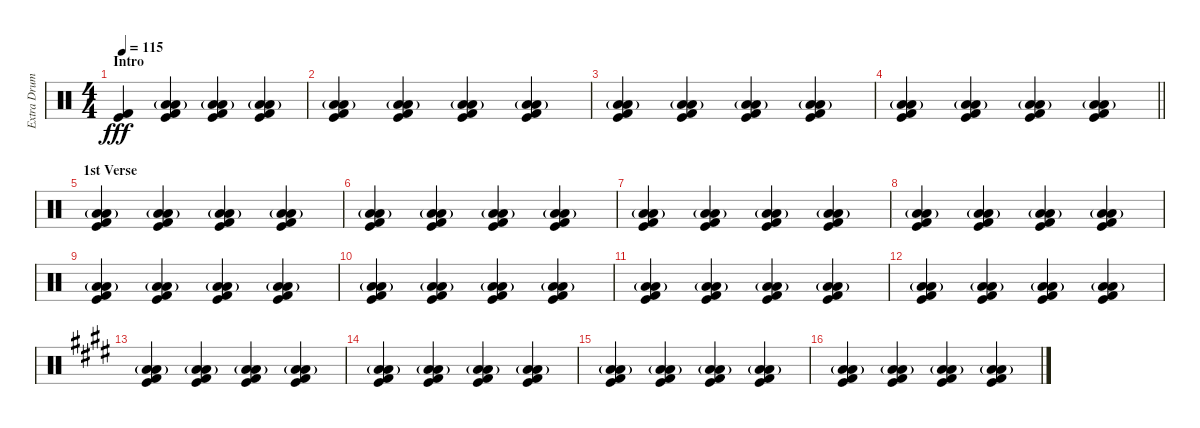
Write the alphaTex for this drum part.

\track ("Extra Drum" "Extra Drum") {instrument percussion}
\staff {score}
\articulation defaults
\ts (4 4)
\section ("" "Intro")
\tempo 115
\clef neutral
\ks c
("Kick (hit)" "Kick (hit) 2").4{dy fff} ("Low Tom (hit)"{g} "Low Floor Tom (hit)"{g} "Kick (hit)" "Kick (hit) 2").4 ("Low Tom (hit)"{g} "Low Floor Tom (hit)"{g} "Kick (hit)" "Kick (hit) 2").4 ("Low Tom (hit)"{g} "Low Floor Tom (hit)"{g} "Kick (hit)" "Kick (hit) 2").4 |
("Low Tom (hit)"{g} "Low Floor Tom (hit)"{g} "Kick (hit)" "Kick (hit) 2").4 ("Low Tom (hit)"{g} "Low Floor Tom (hit)"{g} "Kick (hit)" "Kick (hit) 2").4 ("Low Tom (hit)"{g} "Low Floor Tom (hit)"{g} "Kick (hit)" "Kick (hit) 2").4 ("Low Tom (hit)"{g} "Low Floor Tom (hit)"{g} "Kick (hit)" "Kick (hit) 2").4 |
("Low Tom (hit)"{g} "Low Floor Tom (hit)"{g} "Kick (hit)" "Kick (hit) 2").4 ("Low Tom (hit)"{g} "Low Floor Tom (hit)"{g} "Kick (hit)" "Kick (hit) 2").4 ("Low Tom (hit)"{g} "Low Floor Tom (hit)"{g} "Kick (hit)" "Kick (hit) 2").4 ("Low Tom (hit)"{g} "Low Floor Tom (hit)"{g} "Kick (hit)" "Kick (hit) 2").4 |
\barLineRight lightlight
("Low Tom (hit)"{g} "Low Floor Tom (hit)"{g} "Kick (hit)" "Kick (hit) 2").4 ("Low Tom (hit)"{g} "Low Floor Tom (hit)"{g} "Kick (hit)" "Kick (hit) 2").4 ("Low Tom (hit)"{g} "Low Floor Tom (hit)"{g} "Kick (hit)" "Kick (hit) 2").4 ("Low Tom (hit)"{g} "Low Floor Tom (hit)"{g} "Kick (hit)" "Kick (hit) 2").4 |
\section ("" "1st Verse")
("Low Tom (hit)"{g} "Low Floor Tom (hit)"{g} "Kick (hit)" "Kick (hit) 2").4 ("Low Tom (hit)"{g} "Low Floor Tom (hit)"{g} "Kick (hit)" "Kick (hit) 2").4 ("Low Tom (hit)"{g} "Low Floor Tom (hit)"{g} "Kick (hit)" "Kick (hit) 2").4 ("Low Tom (hit)"{g} "Low Floor Tom (hit)"{g} "Kick (hit)" "Kick (hit) 2").4 |
("Low Tom (hit)"{g} "Low Floor Tom (hit)"{g} "Kick (hit)" "Kick (hit) 2").4 ("Low Tom (hit)"{g} "Low Floor Tom (hit)"{g} "Kick (hit)" "Kick (hit) 2").4 ("Low Tom (hit)"{g} "Low Floor Tom (hit)"{g} "Kick (hit)" "Kick (hit) 2").4 ("Low Tom (hit)"{g} "Low Floor Tom (hit)"{g} "Kick (hit)" "Kick (hit) 2").4 |
("Low Tom (hit)"{g} "Low Floor Tom (hit)"{g} "Kick (hit)" "Kick (hit) 2").4 ("Low Tom (hit)"{g} "Low Floor Tom (hit)"{g} "Kick (hit)" "Kick (hit) 2").4 ("Low Tom (hit)"{g} "Low Floor Tom (hit)"{g} "Kick (hit)" "Kick (hit) 2").4 ("Low Tom (hit)"{g} "Low Floor Tom (hit)"{g} "Kick (hit)" "Kick (hit) 2").4 |
("Low Tom (hit)"{g} "Low Floor Tom (hit)"{g} "Kick (hit)" "Kick (hit) 2").4 ("Low Tom (hit)"{g} "Low Floor Tom (hit)"{g} "Kick (hit)" "Kick (hit) 2").4 ("Low Tom (hit)"{g} "Low Floor Tom (hit)"{g} "Kick (hit)" "Kick (hit) 2").4 ("Low Tom (hit)"{g} "Low Floor Tom (hit)"{g} "Kick (hit)" "Kick (hit) 2").4 |
("Low Tom (hit)"{g} "Low Floor Tom (hit)"{g} "Kick (hit)" "Kick (hit) 2").4 ("Low Tom (hit)"{g} "Low Floor Tom (hit)"{g} "Kick (hit)" "Kick (hit) 2").4 ("Low Tom (hit)"{g} "Low Floor Tom (hit)"{g} "Kick (hit)" "Kick (hit) 2").4 ("Low Tom (hit)"{g} "Low Floor Tom (hit)"{g} "Kick (hit)" "Kick (hit) 2").4 |
("Low Tom (hit)"{g} "Low Floor Tom (hit)"{g} "Kick (hit)" "Kick (hit) 2").4 ("Low Tom (hit)"{g} "Low Floor Tom (hit)"{g} "Kick (hit)" "Kick (hit) 2").4 ("Low Tom (hit)"{g} "Low Floor Tom (hit)"{g} "Kick (hit)" "Kick (hit) 2").4 ("Low Tom (hit)"{g} "Low Floor Tom (hit)"{g} "Kick (hit)" "Kick (hit) 2").4 |
("Low Tom (hit)"{g} "Low Floor Tom (hit)"{g} "Kick (hit)" "Kick (hit) 2").4 ("Low Tom (hit)"{g} "Low Floor Tom (hit)"{g} "Kick (hit)" "Kick (hit) 2").4 ("Low Tom (hit)"{g} "Low Floor Tom (hit)"{g} "Kick (hit)" "Kick (hit) 2").4 ("Low Tom (hit)"{g} "Low Floor Tom (hit)"{g} "Kick (hit)" "Kick (hit) 2").4 |
("Low Tom (hit)"{g} "Low Floor Tom (hit)"{g} "Kick (hit)" "Kick (hit) 2").4 ("Low Tom (hit)"{g} "Low Floor Tom (hit)"{g} "Kick (hit)" "Kick (hit) 2").4 ("Low Tom (hit)"{g} "Low Floor Tom (hit)"{g} "Kick (hit)" "Kick (hit) 2").4 ("Low Tom (hit)"{g} "Low Floor Tom (hit)"{g} "Kick (hit)" "Kick (hit) 2").4 |
\ks e
("Low Tom (hit)"{g} "Low Floor Tom (hit)"{g} "Kick (hit)" "Kick (hit) 2").4 ("Low Tom (hit)"{g} "Low Floor Tom (hit)"{g} "Kick (hit)" "Kick (hit) 2").4 ("Low Tom (hit)"{g} "Low Floor Tom (hit)"{g} "Kick (hit)" "Kick (hit) 2").4 ("Low Tom (hit)"{g} "Low Floor Tom (hit)"{g} "Kick (hit)" "Kick (hit) 2").4 |
("Low Tom (hit)"{g} "Low Floor Tom (hit)"{g} "Kick (hit)" "Kick (hit) 2").4 ("Low Tom (hit)"{g} "Low Floor Tom (hit)"{g} "Kick (hit)" "Kick (hit) 2").4 ("Low Tom (hit)"{g} "Low Floor Tom (hit)"{g} "Kick (hit)" "Kick (hit) 2").4 ("Low Tom (hit)"{g} "Low Floor Tom (hit)"{g} "Kick (hit)" "Kick (hit) 2").4 |
("Low Tom (hit)"{g} "Low Floor Tom (hit)"{g} "Kick (hit)" "Kick (hit) 2").4 ("Low Tom (hit)"{g} "Low Floor Tom (hit)"{g} "Kick (hit)" "Kick (hit) 2").4 ("Low Tom (hit)"{g} "Low Floor Tom (hit)"{g} "Kick (hit)" "Kick (hit) 2").4 ("Low Tom (hit)"{g} "Low Floor Tom (hit)"{g} "Kick (hit)" "Kick (hit) 2").4 |
("Low Tom (hit)"{g} "Low Floor Tom (hit)"{g} "Kick (hit)" "Kick (hit) 2").4 ("Low Tom (hit)"{g} "Low Floor Tom (hit)"{g} "Kick (hit)" "Kick (hit) 2").4 ("Low Tom (hit)"{g} "Low Floor Tom (hit)"{g} "Kick (hit)" "Kick (hit) 2").4 ("Low Tom (hit)"{g} "Low Floor Tom (hit)"{g} "Kick (hit)" "Kick (hit) 2").4
